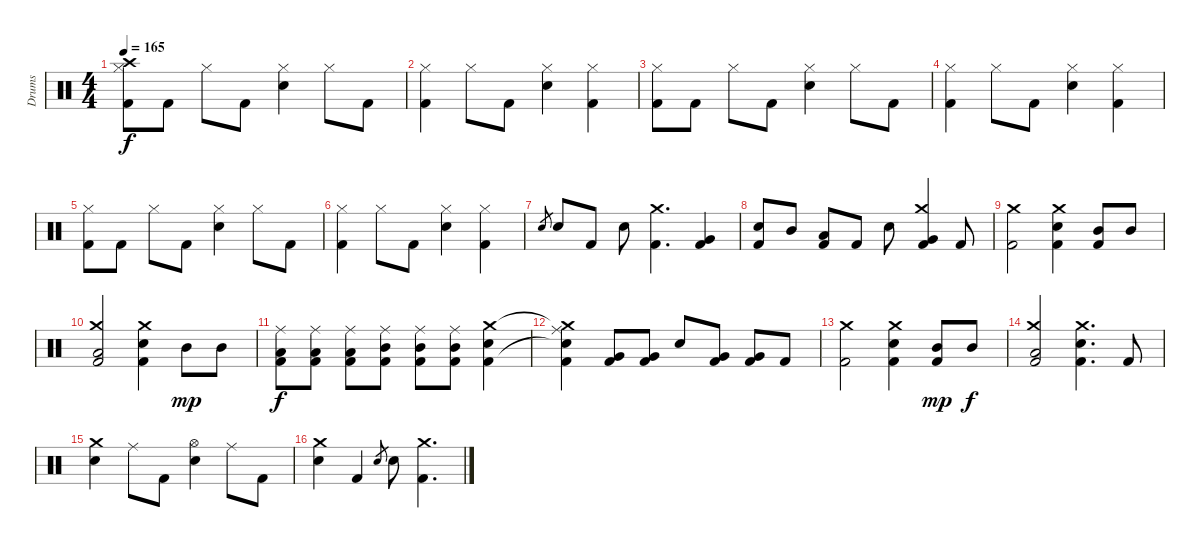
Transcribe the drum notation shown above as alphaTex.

\track ("Drums" "Drums") {instrument percussion}
\staff {score}
\articulation defaults
\ts (4 4)
\tempo 165
\clef neutral
\ks c
("Crash high (hit)" "Hi-Hat (closed)" "Kick (hit) 2").8{dy f} "Kick (hit) 2".8 "Hi-Hat (closed)".8 "Kick (hit) 2".8 ("Hi-Hat (closed)" "Electric Snare (hit)").4 "Hi-Hat (closed)".8 "Kick (hit) 2".8 |
("Hi-Hat (closed)" "Kick (hit) 2").4 "Hi-Hat (closed)".8 "Kick (hit) 2".8 ("Hi-Hat (closed)" "Electric Snare (hit)").4 ("Hi-Hat (closed)" "Kick (hit) 2").4 |
("Hi-Hat (closed)" "Kick (hit) 2").8 "Kick (hit) 2".8 "Hi-Hat (closed)".8 "Kick (hit) 2".8 ("Hi-Hat (closed)" "Electric Snare (hit)").4 "Hi-Hat (closed)".8 "Kick (hit) 2".8 |
("Hi-Hat (closed)" "Kick (hit) 2").4 "Hi-Hat (closed)".8 "Kick (hit) 2".8 ("Hi-Hat (closed)" "Electric Snare (hit)").4 ("Hi-Hat (closed)" "Kick (hit) 2").4 |
("Hi-Hat (closed)" "Kick (hit) 2").8 "Kick (hit) 2".8 "Hi-Hat (closed)".8 "Kick (hit) 2".8 ("Hi-Hat (closed)" "Electric Snare (hit)").4 "Hi-Hat (closed)".8 "Kick (hit) 2".8 |
("Hi-Hat (closed)" "Kick (hit) 2").4 "Hi-Hat (closed)".8 "Kick (hit) 2".8 ("Hi-Hat (closed)" "Electric Snare (hit)").4 ("Hi-Hat (closed)" "Kick (hit) 2").4 |
"Electric Snare (hit)".8{gr} "Electric Snare (hit)".8 "Kick (hit) 2".8 "Electric Snare (hit)".8 ("Crash medium (hit)" "Kick (hit) 2").4{d} ("Very Low Tom (hit)" "Kick (hit) 2").4 |
("Electric Snare (hit)" "Kick (hit) 2").8 "Mid Tom (hit)".8 ("Low Tom (hit)" "Kick (hit) 2").8 "Kick (hit) 2".8 "Electric Snare (hit)".8 ("Crash medium (hit)" "Very Low Tom (hit)" "Kick (hit) 2").4 "Kick (hit) 2".8 |
("Crash medium (hit)" "Kick (hit) 2").2 ("Crash medium (hit)" "Electric Snare (hit)" "Kick (hit) 2").4 ("Mid Tom (hit)" "Kick (hit) 2").8 "Mid Tom (hit)".8 |
("Crash medium (hit)" "Low Tom (hit)" "Kick (hit) 2").2 ("Crash medium (hit)" "Electric Snare (hit)" "Kick (hit) 2").4 "Mid Tom (hit)".8{dy mp} "Mid Tom (hit)".8 |
("Ride (middle)" "Low Tom (hit)" "Kick (hit) 2").8{dy f} ("Ride (middle)" "Low Tom (hit)" "Kick (hit) 2").8 ("Ride (middle)" "Low Tom (hit)" "Kick (hit) 2").8 ("Ride (middle)" "Mid Tom (hit)" "Kick (hit) 2").8 ("Ride (middle)" "Mid Tom (hit)" "Kick (hit) 2").8 ("Ride (middle)" "Mid Tom (hit)" "Kick (hit) 2").8 ("Crash medium (hit)" "Electric Snare (hit)" "Kick (hit) 2").4 |
("Crash medium (hit)"{t} "Ride (middle)" "Electric Snare (hit)"{t} "Kick (hit) 2").4 ("Very Low Tom (hit)" "Kick (hit) 2").8 ("Very Low Tom (hit)" "Kick (hit) 2").8 "Electric Snare (hit)".8 ("Very Low Tom (hit)" "Kick (hit) 2").8 ("Very Low Tom (hit)" "Kick (hit) 2").8 "Kick (hit) 2".8 |
("Crash medium (hit)" "Kick (hit) 2").2 ("Crash medium (hit)" "Electric Snare (hit)" "Kick (hit) 2").4 ("Mid Tom (hit)" "Kick (hit) 2").8{dy mp} "Mid Tom (hit)".8{dy f} |
("Crash medium (hit)" "Low Tom (hit)" "Kick (hit) 2").2 ("Crash medium (hit)" "Electric Snare (hit)" "Kick (hit) 2").4{d} "Kick (hit) 2".8 |
("Crash medium (hit)" "Electric Snare (hit)").4 "Ride (middle)".8 "Kick (hit) 2".8 ("Hi-Hat (open)" "Electric Snare (hit)").4 "Ride (middle)".8 "Kick (hit) 2".8 |
("Crash medium (hit)" "Electric Snare (hit)").4 "Kick (hit) 2".4 "Electric Snare (hit)".8{gr} "Electric Snare (hit)".8 ("Crash medium (hit)" "Kick (hit) 2").4{d}
